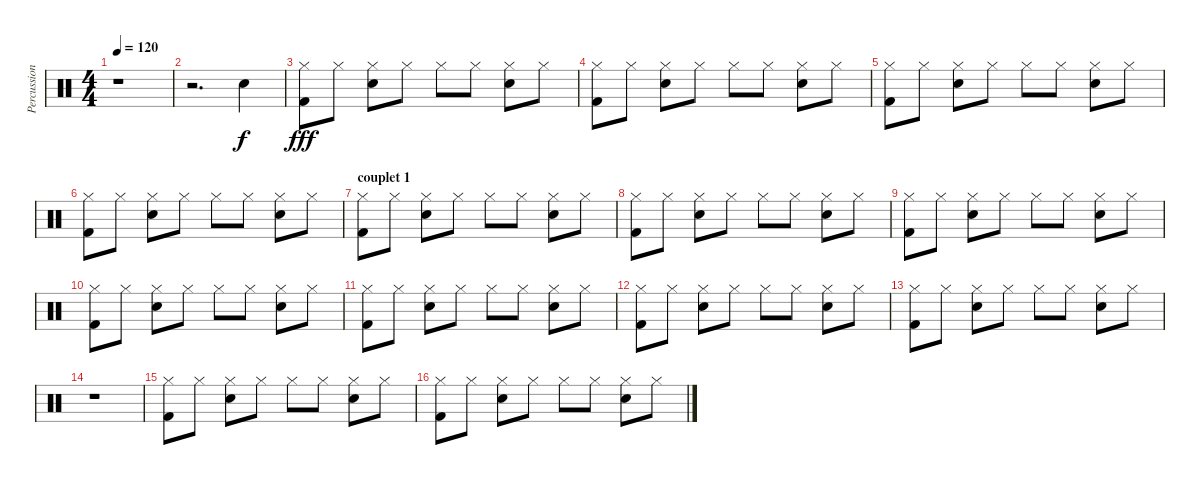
\track ("Percussions" "Percussion") {instrument percussion}
\staff {score}
\articulation defaults
\ts (4 4)
\tempo 120
\clef neutral
\ks c
r.1{dy f} |
r.2{d} "Electric Snare (hit)".4 |
("Hi-Hat (closed)" "Kick (hit) 2").8{dy fff} "Hi-Hat (closed)".8 ("Hi-Hat (closed)" "Electric Snare (hit)").8 "Hi-Hat (closed)".8 "Hi-Hat (closed)".8 "Hi-Hat (closed)".8 ("Hi-Hat (closed)" "Electric Snare (hit)").8 "Hi-Hat (closed)".8 |
("Hi-Hat (closed)" "Kick (hit) 2").8 "Hi-Hat (closed)".8 ("Hi-Hat (closed)" "Electric Snare (hit)").8 "Hi-Hat (closed)".8 "Hi-Hat (closed)".8 "Hi-Hat (closed)".8 ("Hi-Hat (closed)" "Electric Snare (hit)").8 "Hi-Hat (closed)".8 |
("Hi-Hat (closed)" "Kick (hit) 2").8 "Hi-Hat (closed)".8 ("Hi-Hat (closed)" "Electric Snare (hit)").8 "Hi-Hat (closed)".8 "Hi-Hat (closed)".8 "Hi-Hat (closed)".8 ("Hi-Hat (closed)" "Electric Snare (hit)").8 "Hi-Hat (closed)".8 |
("Hi-Hat (closed)" "Kick (hit) 2").8 "Hi-Hat (closed)".8 ("Hi-Hat (closed)" "Electric Snare (hit)").8 "Hi-Hat (closed)".8 "Hi-Hat (closed)".8 "Hi-Hat (closed)".8 ("Hi-Hat (closed)" "Electric Snare (hit)").8 "Hi-Hat (closed)".8 |
\section ("" "couplet 1")
("Hi-Hat (closed)" "Kick (hit) 2").8 "Hi-Hat (closed)".8 ("Hi-Hat (closed)" "Electric Snare (hit)").8 "Hi-Hat (closed)".8 "Hi-Hat (closed)".8 "Hi-Hat (closed)".8 ("Hi-Hat (closed)" "Electric Snare (hit)").8 "Hi-Hat (closed)".8 |
("Hi-Hat (closed)" "Kick (hit) 2").8 "Hi-Hat (closed)".8 ("Hi-Hat (closed)" "Electric Snare (hit)").8 "Hi-Hat (closed)".8 "Hi-Hat (closed)".8 "Hi-Hat (closed)".8 ("Hi-Hat (closed)" "Electric Snare (hit)").8 "Hi-Hat (closed)".8 |
("Hi-Hat (closed)" "Kick (hit) 2").8 "Hi-Hat (closed)".8 ("Hi-Hat (closed)" "Electric Snare (hit)").8 "Hi-Hat (closed)".8 "Hi-Hat (closed)".8 "Hi-Hat (closed)".8 ("Hi-Hat (closed)" "Electric Snare (hit)").8 "Hi-Hat (closed)".8 |
("Hi-Hat (closed)" "Kick (hit) 2").8 "Hi-Hat (closed)".8 ("Hi-Hat (closed)" "Electric Snare (hit)").8 "Hi-Hat (closed)".8 "Hi-Hat (closed)".8 "Hi-Hat (closed)".8 ("Hi-Hat (closed)" "Electric Snare (hit)").8 "Hi-Hat (closed)".8 |
("Hi-Hat (closed)" "Kick (hit) 2").8 "Hi-Hat (closed)".8 ("Hi-Hat (closed)" "Electric Snare (hit)").8 "Hi-Hat (closed)".8 "Hi-Hat (closed)".8 "Hi-Hat (closed)".8 ("Hi-Hat (closed)" "Electric Snare (hit)").8 "Hi-Hat (closed)".8 |
("Hi-Hat (closed)" "Kick (hit) 2").8 "Hi-Hat (closed)".8 ("Hi-Hat (closed)" "Electric Snare (hit)").8 "Hi-Hat (closed)".8 "Hi-Hat (closed)".8 "Hi-Hat (closed)".8 ("Hi-Hat (closed)" "Electric Snare (hit)").8 "Hi-Hat (closed)".8 |
("Hi-Hat (closed)" "Kick (hit) 2").8 "Hi-Hat (closed)".8 ("Hi-Hat (closed)" "Electric Snare (hit)").8 "Hi-Hat (closed)".8 "Hi-Hat (closed)".8 "Hi-Hat (closed)".8 ("Hi-Hat (closed)" "Electric Snare (hit)").8 "Hi-Hat (closed)".8 |
r.1 |
("Hi-Hat (closed)" "Kick (hit) 2").8 "Hi-Hat (closed)".8 ("Hi-Hat (closed)" "Electric Snare (hit)").8 "Hi-Hat (closed)".8 "Hi-Hat (closed)".8 "Hi-Hat (closed)".8 ("Hi-Hat (closed)" "Electric Snare (hit)").8 "Hi-Hat (closed)".8 |
("Hi-Hat (closed)" "Kick (hit) 2").8 "Hi-Hat (closed)".8 ("Hi-Hat (closed)" "Electric Snare (hit)").8 "Hi-Hat (closed)".8 "Hi-Hat (closed)".8 "Hi-Hat (closed)".8 ("Hi-Hat (closed)" "Electric Snare (hit)").8 "Hi-Hat (closed)".8
